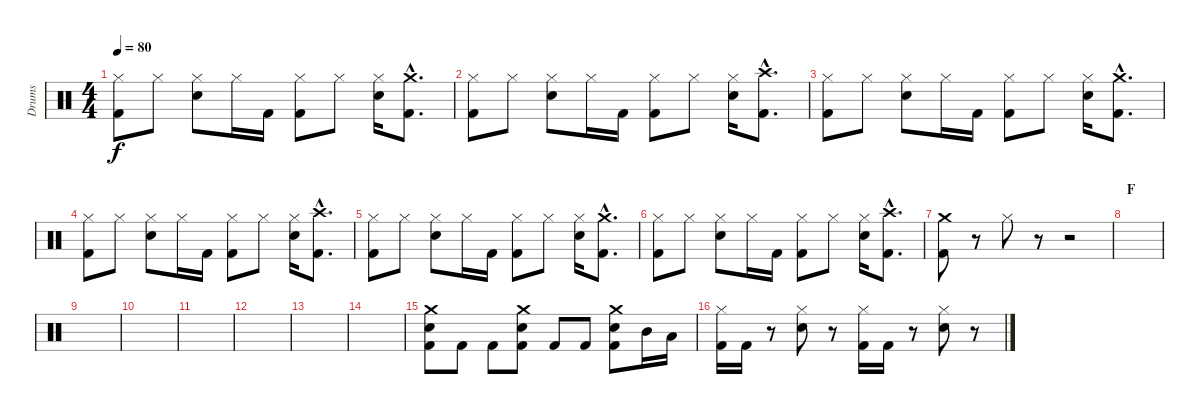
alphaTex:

\track ("Drums" "Drums") {instrument percussion}
\staff {score}
\articulation defaults
\ts (4 4)
\tempo 80
\clef neutral
\ks c
("Kick (hit) 2" "Hi-Hat (closed)").8{dy f} "Hi-Hat (closed)".8 ("Snare (hit) 2" "Hi-Hat (closed)").8 "Hi-Hat (closed)".16 "Kick (hit) 2".16 ("Kick (hit) 2" "Hi-Hat (closed)").8 "Hi-Hat (closed)".8 ("Snare (hit) 2" "Hi-Hat (closed)").16 ("Kick (hit) 2"{hac} "Crash medium (hit)"{hac}).8{d} |
("Kick (hit) 2" "Hi-Hat (closed)").8 "Hi-Hat (closed)".8 ("Snare (hit) 2" "Hi-Hat (closed)").8 "Hi-Hat (closed)".16 "Kick (hit) 2".16 ("Kick (hit) 2" "Hi-Hat (closed)").8 "Hi-Hat (closed)".8 ("Snare (hit) 2" "Hi-Hat (closed)").16 ("Kick (hit) 2"{hac} "Crash high (hit)"{hac}).8{d} |
("Kick (hit) 2" "Hi-Hat (closed)").8 "Hi-Hat (closed)".8 ("Snare (hit) 2" "Hi-Hat (closed)").8 "Hi-Hat (closed)".16 "Kick (hit) 2".16 ("Kick (hit) 2" "Hi-Hat (closed)").8 "Hi-Hat (closed)".8 ("Snare (hit) 2" "Hi-Hat (closed)").16 ("Kick (hit) 2"{hac} "Crash medium (hit)"{hac}).8{d} |
("Kick (hit) 2" "Hi-Hat (closed)").8 "Hi-Hat (closed)".8 ("Snare (hit) 2" "Hi-Hat (closed)").8 "Hi-Hat (closed)".16 "Kick (hit) 2".16 ("Kick (hit) 2" "Hi-Hat (closed)").8 "Hi-Hat (closed)".8 ("Snare (hit) 2" "Hi-Hat (closed)").16 ("Kick (hit) 2"{hac} "Crash high (hit)"{hac}).8{d} |
("Kick (hit) 2" "Hi-Hat (closed)").8 "Hi-Hat (closed)".8 ("Snare (hit) 2" "Hi-Hat (closed)").8 "Hi-Hat (closed)".16 "Kick (hit) 2".16 ("Kick (hit) 2" "Hi-Hat (closed)").8 "Hi-Hat (closed)".8 ("Snare (hit) 2" "Hi-Hat (closed)").16 ("Kick (hit) 2"{hac} "Crash medium (hit)"{hac}).8{d} |
("Kick (hit) 2" "Hi-Hat (closed)").8 "Hi-Hat (closed)".8 ("Snare (hit) 2" "Hi-Hat (closed)").8 "Hi-Hat (closed)".16 "Kick (hit) 2".16 ("Kick (hit) 2" "Hi-Hat (closed)").8 "Hi-Hat (closed)".8 ("Snare (hit) 2" "Hi-Hat (closed)").16 ("Kick (hit) 2"{hac} "Crash high (hit)"{hac}).8{d} |
("Kick (hit) 2" "Crash medium (hit)").8 r.8 "Hi-Hat (closed)".8 r.8 r.2 |
\section ("" "F")
|
|
|
|
|
|
|
("Kick (hit) 2" "Snare (hit) 2" "Crash medium (hit)").8 "Kick (hit) 2".8 "Kick (hit) 2".8 ("Kick (hit) 2" "Snare (hit) 2" "Crash medium (hit)").8 "Kick (hit) 2".8 "Kick (hit) 2".8 ("Kick (hit) 2" "Snare (hit) 2" "Crash medium (hit)").8 "Mid Tom (hit)".16 "Low Tom (hit)".16 |
("Kick (hit) 2" "Hi-Hat (closed)").16 "Kick (hit) 2".16 r.8 ("Snare (hit) 2" "Hi-Hat (closed)").8 r.8 ("Kick (hit) 2" "Hi-Hat (closed)").16 "Kick (hit) 2".16 r.8 ("Snare (hit) 2" "Hi-Hat (closed)").8 r.8
